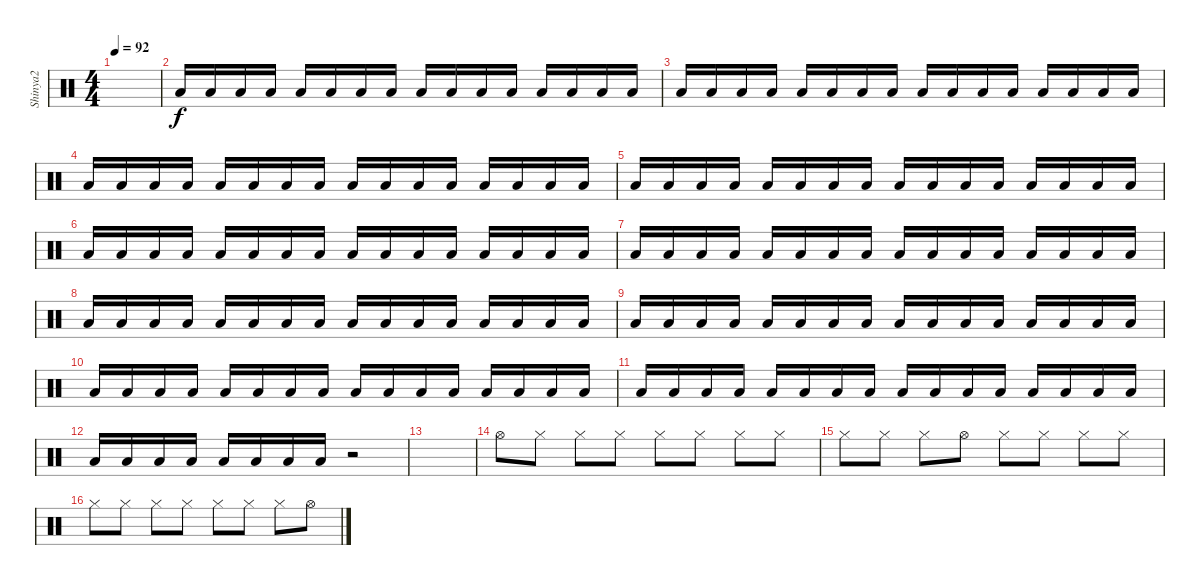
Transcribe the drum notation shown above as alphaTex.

\track ("Shinya2" "Shinya2") {instrument percussion}
\staff {score}
\articulation defaults
\ts (4 4)
\tempo 92
\clef neutral
\ks c
|
"Low Tom (hit)".16 "Low Tom (hit)".16 "Low Tom (hit)".16 "Low Tom (hit)".16 "Low Tom (hit)".16 "Low Tom (hit)".16 "Low Tom (hit)".16 "Low Tom (hit)".16 "Low Tom (hit)".16 "Low Tom (hit)".16 "Low Tom (hit)".16 "Low Tom (hit)".16 "Low Tom (hit)".16 "Low Tom (hit)".16 "Low Tom (hit)".16 "Low Tom (hit)".16 |
"Low Tom (hit)".16 "Low Tom (hit)".16 "Low Tom (hit)".16 "Low Tom (hit)".16 "Low Tom (hit)".16 "Low Tom (hit)".16 "Low Tom (hit)".16 "Low Tom (hit)".16 "Low Tom (hit)".16 "Low Tom (hit)".16 "Low Tom (hit)".16 "Low Tom (hit)".16 "Low Tom (hit)".16 "Low Tom (hit)".16 "Low Tom (hit)".16 "Low Tom (hit)".16 |
"Low Tom (hit)".16 "Low Tom (hit)".16 "Low Tom (hit)".16 "Low Tom (hit)".16 "Low Tom (hit)".16 "Low Tom (hit)".16 "Low Tom (hit)".16 "Low Tom (hit)".16 "Low Tom (hit)".16 "Low Tom (hit)".16 "Low Tom (hit)".16 "Low Tom (hit)".16 "Low Tom (hit)".16 "Low Tom (hit)".16 "Low Tom (hit)".16 "Low Tom (hit)".16 |
"Low Tom (hit)".16 "Low Tom (hit)".16 "Low Tom (hit)".16 "Low Tom (hit)".16 "Low Tom (hit)".16 "Low Tom (hit)".16 "Low Tom (hit)".16 "Low Tom (hit)".16 "Low Tom (hit)".16 "Low Tom (hit)".16 "Low Tom (hit)".16 "Low Tom (hit)".16 "Low Tom (hit)".16 "Low Tom (hit)".16 "Low Tom (hit)".16 "Low Tom (hit)".16 |
"Low Tom (hit)".16 "Low Tom (hit)".16 "Low Tom (hit)".16 "Low Tom (hit)".16 "Low Tom (hit)".16 "Low Tom (hit)".16 "Low Tom (hit)".16 "Low Tom (hit)".16 "Low Tom (hit)".16 "Low Tom (hit)".16 "Low Tom (hit)".16 "Low Tom (hit)".16 "Low Tom (hit)".16 "Low Tom (hit)".16 "Low Tom (hit)".16 "Low Tom (hit)".16 |
"Low Tom (hit)".16 "Low Tom (hit)".16 "Low Tom (hit)".16 "Low Tom (hit)".16 "Low Tom (hit)".16 "Low Tom (hit)".16 "Low Tom (hit)".16 "Low Tom (hit)".16 "Low Tom (hit)".16 "Low Tom (hit)".16 "Low Tom (hit)".16 "Low Tom (hit)".16 "Low Tom (hit)".16 "Low Tom (hit)".16 "Low Tom (hit)".16 "Low Tom (hit)".16 |
"Low Tom (hit)".16 "Low Tom (hit)".16 "Low Tom (hit)".16 "Low Tom (hit)".16 "Low Tom (hit)".16 "Low Tom (hit)".16 "Low Tom (hit)".16 "Low Tom (hit)".16 "Low Tom (hit)".16 "Low Tom (hit)".16 "Low Tom (hit)".16 "Low Tom (hit)".16 "Low Tom (hit)".16 "Low Tom (hit)".16 "Low Tom (hit)".16 "Low Tom (hit)".16 |
"Low Tom (hit)".16 "Low Tom (hit)".16 "Low Tom (hit)".16 "Low Tom (hit)".16 "Low Tom (hit)".16 "Low Tom (hit)".16 "Low Tom (hit)".16 "Low Tom (hit)".16 "Low Tom (hit)".16 "Low Tom (hit)".16 "Low Tom (hit)".16 "Low Tom (hit)".16 "Low Tom (hit)".16 "Low Tom (hit)".16 "Low Tom (hit)".16 "Low Tom (hit)".16 |
"Low Tom (hit)".16 "Low Tom (hit)".16 "Low Tom (hit)".16 "Low Tom (hit)".16 "Low Tom (hit)".16 "Low Tom (hit)".16 "Low Tom (hit)".16 "Low Tom (hit)".16 "Low Tom (hit)".16 "Low Tom (hit)".16 "Low Tom (hit)".16 "Low Tom (hit)".16 "Low Tom (hit)".16 "Low Tom (hit)".16 "Low Tom (hit)".16 "Low Tom (hit)".16 |
"Low Tom (hit)".16 "Low Tom (hit)".16 "Low Tom (hit)".16 "Low Tom (hit)".16 "Low Tom (hit)".16 "Low Tom (hit)".16 "Low Tom (hit)".16 "Low Tom (hit)".16 "Low Tom (hit)".16 "Low Tom (hit)".16 "Low Tom (hit)".16 "Low Tom (hit)".16 "Low Tom (hit)".16 "Low Tom (hit)".16 "Low Tom (hit)".16 "Low Tom (hit)".16 |
"Low Tom (hit)".16 "Low Tom (hit)".16 "Low Tom (hit)".16 "Low Tom (hit)".16 "Low Tom (hit)".16 "Low Tom (hit)".16 "Low Tom (hit)".16 "Low Tom (hit)".16 r.2 |
|
"Hi-Hat (open)".8{dy f} "Hi-Hat (closed)".8 "Hi-Hat (closed)".8 "Hi-Hat (closed)".8 "Hi-Hat (closed)".8 "Hi-Hat (closed)".8 "Hi-Hat (closed)".8 "Hi-Hat (closed)".8 |
"Hi-Hat (closed)".8 "Hi-Hat (closed)".8 "Hi-Hat (closed)".8 "Hi-Hat (open)".8 "Hi-Hat (closed)".8 "Hi-Hat (closed)".8 "Hi-Hat (closed)".8 "Hi-Hat (closed)".8 |
"Hi-Hat (closed)".8 "Hi-Hat (closed)".8 "Hi-Hat (closed)".8 "Hi-Hat (closed)".8 "Hi-Hat (closed)".8 "Hi-Hat (closed)".8 "Hi-Hat (closed)".8 "Hi-Hat (open)".8
